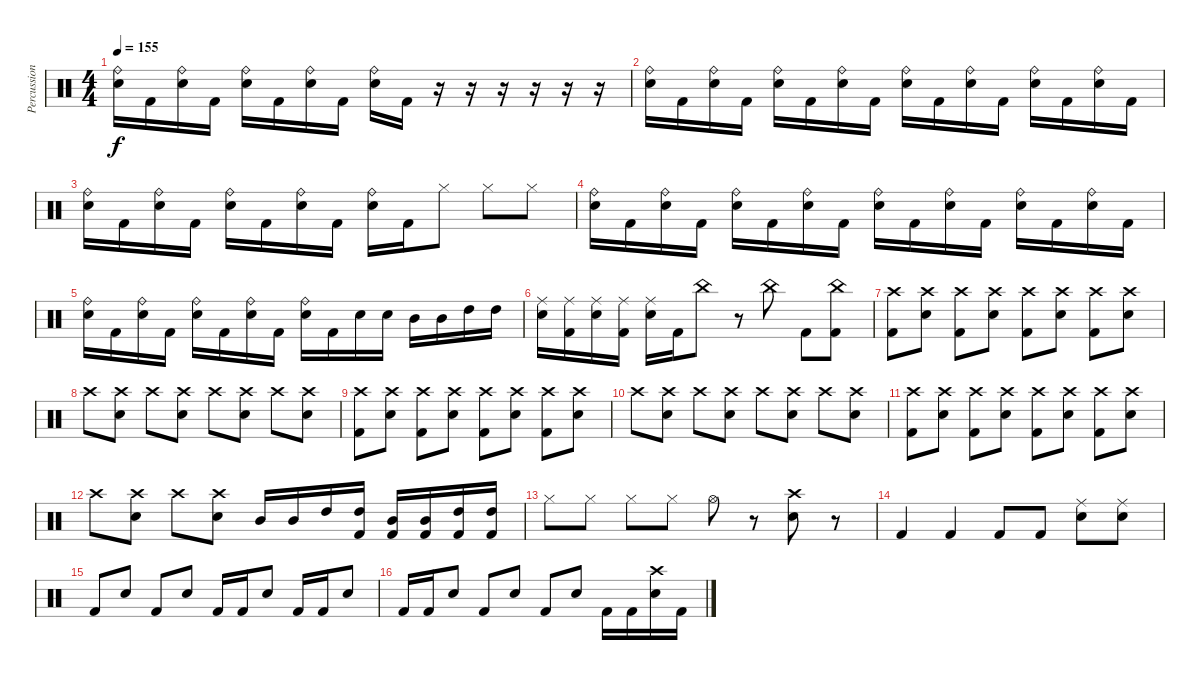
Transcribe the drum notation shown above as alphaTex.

\track ("Percussion" "Percussion") {instrument percussion}
\staff {score}
\articulation defaults
\ts (4 4)
\tempo 155
\clef neutral
\ks c
("Ride (bell)" "Snare (hit) 2").16{dy f} "Kick (hit) 2".16 ("Ride (bell)" "Snare (hit) 2").16 "Kick (hit) 2".16 ("Ride (bell)" "Snare (hit) 2").16 "Kick (hit) 2".16 ("Ride (bell)" "Snare (hit) 2").16 "Kick (hit) 2".16 ("Ride (bell)" "Snare (hit) 2").16 "Kick (hit) 2".16 r.16 r.16 r.16 r.16 r.16 r.16 |
("Ride (bell)" "Snare (hit) 2").16 "Kick (hit) 2".16 ("Ride (bell)" "Snare (hit) 2").16 "Kick (hit) 2".16 ("Ride (bell)" "Snare (hit) 2").16 "Kick (hit) 2".16 ("Ride (bell)" "Snare (hit) 2").16 "Kick (hit) 2".16 ("Ride (bell)" "Snare (hit) 2").16 "Kick (hit) 2".16 ("Ride (bell)" "Snare (hit) 2").16 "Kick (hit) 2".16 ("Ride (bell)" "Snare (hit) 2").16 "Kick (hit) 2".16 ("Ride (bell)" "Snare (hit) 2").16 "Kick (hit) 2".16 |
("Ride (bell)" "Snare (hit) 2").16 "Kick (hit) 2".16 ("Ride (bell)" "Snare (hit) 2").16 "Kick (hit) 2".16 ("Ride (bell)" "Snare (hit) 2").16 "Kick (hit) 2".16 ("Ride (bell)" "Snare (hit) 2").16 "Kick (hit) 2".16 ("Ride (bell)" "Snare (hit) 2").16 "Kick (hit) 2".16 "Hi-Hat (closed)".8 "Hi-Hat (closed)".8 "Hi-Hat (closed)".8 |
("Ride (bell)" "Snare (hit) 2").16 "Kick (hit) 2".16 ("Ride (bell)" "Snare (hit) 2").16 "Kick (hit) 2".16 ("Ride (bell)" "Snare (hit) 2").16 "Kick (hit) 2".16 ("Ride (bell)" "Snare (hit) 2").16 "Kick (hit) 2".16 ("Ride (bell)" "Snare (hit) 2").16 "Kick (hit) 2".16 ("Ride (bell)" "Snare (hit) 2").16 "Kick (hit) 2".16 ("Ride (bell)" "Snare (hit) 2").16 "Kick (hit) 2".16 ("Ride (bell)" "Snare (hit) 2").16 "Kick (hit) 2".16 |
("Ride (bell)" "Snare (hit) 2").16 "Kick (hit) 2".16 ("Ride (bell)" "Snare (hit) 2").16 "Kick (hit) 2".16 ("Ride (bell)" "Snare (hit) 2").16 "Kick (hit) 2".16 ("Ride (bell)" "Snare (hit) 2").16 "Kick (hit) 2".16 ("Ride (bell)" "Snare (hit) 2").16 "Kick (hit) 2".16 "Snare (hit) 2".16 "Snare (hit) 2".16 "Mid Tom (hit)".16 "Mid Tom (hit)".16 "High Tom (hit)".16 "High Tom (hit)".16 |
("Ride (middle)" "Snare (hit) 2").16 ("Ride (middle)" "Kick (hit) 2").16 ("Ride (middle)" "Snare (hit) 2").16 ("Ride (middle)" "Kick (hit) 2").16 ("Ride (middle)" "Snare (hit) 2").16 "Kick (hit) 2".16 "China (hit)".8 r.8 "China (hit)".8 "Kick (hit) 2".8 ("China (hit)" "Kick (hit) 2").8 |
("Crash high (hit)" "Kick (hit) 2").8 ("Crash high (hit)" "Snare (hit) 2").8 ("Crash high (hit)" "Kick (hit) 2").8 ("Crash high (hit)" "Snare (hit) 2").8 ("Crash high (hit)" "Kick (hit) 2").8 ("Crash high (hit)" "Snare (hit) 2").8 ("Crash high (hit)" "Kick (hit) 2").8 ("Crash high (hit)" "Snare (hit) 2").8 |
"Crash high (hit)".8 ("Crash high (hit)" "Snare (hit) 2").8 "Crash high (hit)".8 ("Crash high (hit)" "Snare (hit) 2").8 "Crash high (hit)".8 ("Crash high (hit)" "Snare (hit) 2").8 "Crash high (hit)".8 ("Crash high (hit)" "Snare (hit) 2").8 |
("Crash high (hit)" "Kick (hit) 2").8 ("Crash high (hit)" "Snare (hit) 2").8 ("Crash high (hit)" "Kick (hit) 2").8 ("Crash high (hit)" "Snare (hit) 2").8 ("Crash high (hit)" "Kick (hit) 2").8 ("Crash high (hit)" "Snare (hit) 2").8 ("Crash high (hit)" "Kick (hit) 2").8 ("Crash high (hit)" "Snare (hit) 2").8 |
"Crash high (hit)".8 ("Crash high (hit)" "Snare (hit) 2").8 "Crash high (hit)".8 ("Crash high (hit)" "Snare (hit) 2").8 "Crash high (hit)".8 ("Crash high (hit)" "Snare (hit) 2").8 "Crash high (hit)".8 ("Crash high (hit)" "Snare (hit) 2").8 |
("Crash high (hit)" "Kick (hit) 2").8 ("Crash high (hit)" "Snare (hit) 2").8 ("Crash high (hit)" "Kick (hit) 2").8 ("Crash high (hit)" "Snare (hit) 2").8 ("Crash high (hit)" "Kick (hit) 2").8 ("Crash high (hit)" "Snare (hit) 2").8 ("Crash high (hit)" "Kick (hit) 2").8 ("Crash high (hit)" "Snare (hit) 2").8 |
"Crash high (hit)".8 ("Crash high (hit)" "Snare (hit) 2").8 "Crash high (hit)".8 ("Crash high (hit)" "Snare (hit) 2").8 "Mid Tom (hit)".16 "Mid Tom (hit)".16 "High Tom (hit)".16 ("High Tom (hit)" "Kick (hit) 2").16 ("Mid Tom (hit)" "Kick (hit) 2").16 ("Mid Tom (hit)" "Kick (hit) 2").16 ("High Tom (hit)" "Kick (hit) 2").16 ("High Tom (hit)" "Kick (hit) 2").16 |
"Hi-Hat (closed)".8 "Hi-Hat (closed)".8 "Hi-Hat (closed)".8 "Hi-Hat (closed)".8 "Hi-Hat (open)".8 r.8 ("Snare (hit) 2" "Crash high (hit)").8 r.8 |
"Kick (hit) 2".4 "Kick (hit) 2".4 "Kick (hit) 2".8 "Kick (hit) 2".8 ("Snare (hit) 2" "Ride (middle)").8 ("Snare (hit) 2" "Ride (middle)").8 |
"Kick (hit) 2".8 "Snare (hit) 2".8 "Kick (hit) 2".8 "Snare (hit) 2".8 "Kick (hit) 2".16 "Kick (hit) 2".16 "Snare (hit) 2".8 "Kick (hit) 2".16 "Kick (hit) 2".16 "Snare (hit) 2".8 |
"Kick (hit) 2".16 "Kick (hit) 2".16 "Snare (hit) 2".8 "Kick (hit) 2".8 "Snare (hit) 2".8 "Kick (hit) 2".8 "Snare (hit) 2".8 "Kick (hit) 2".16 "Kick (hit) 2".16 ("Crash high (hit)" "Snare (hit) 2").16 "Kick (hit) 2".16
